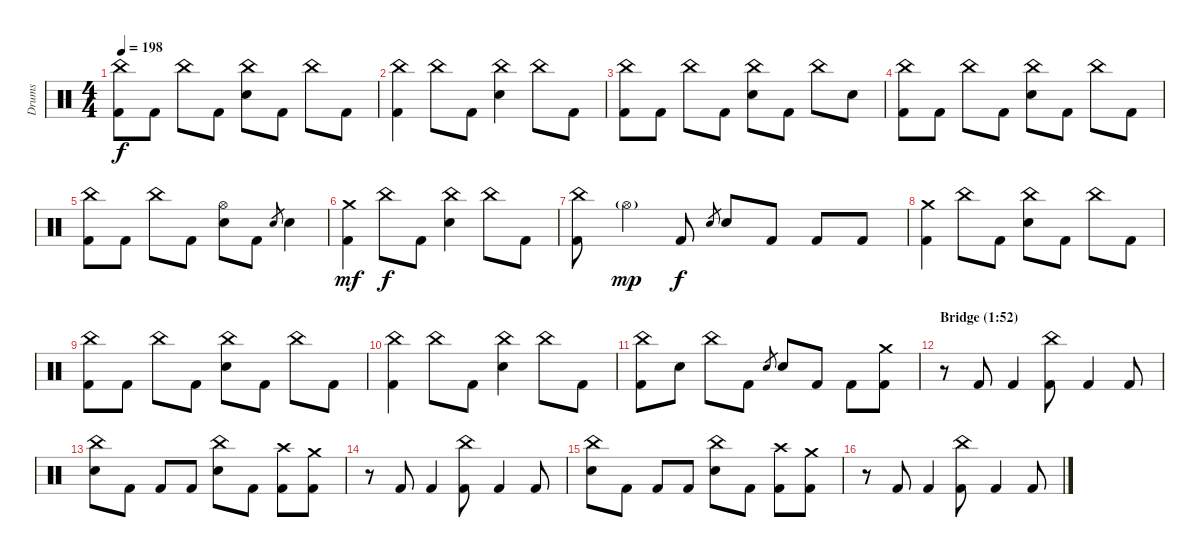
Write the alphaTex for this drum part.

\track ("Drums" "Drums") {instrument percussion}
\staff {score}
\articulation defaults
\ts (4 4)
\tempo 198
\clef neutral
\ks c
("China (hit)" "Kick (hit) 2").8{dy f} "Kick (hit) 2".8 "China (hit)".8 "Kick (hit) 2".8 ("China (hit)" "Snare (hit) 2").8 "Kick (hit) 2".8 "China (hit)".8 "Kick (hit) 2".8 |
("China (hit)" "Kick (hit) 2").4 "China (hit)".8 "Kick (hit) 2".8 ("China (hit)" "Snare (hit) 2").4 "China (hit)".8 "Kick (hit) 2".8 |
("China (hit)" "Kick (hit) 2").8 "Kick (hit) 2".8 "China (hit)".8 "Kick (hit) 2".8 ("China (hit)" "Snare (hit) 2").8 "Kick (hit) 2".8 "China (hit)".8 "Snare (hit) 2".8 |
("China (hit)" "Kick (hit) 2").8 "Kick (hit) 2".8 "China (hit)".8 "Kick (hit) 2".8 ("China (hit)" "Snare (hit) 2").8 "Kick (hit) 2".8 "China (hit)".8 "Kick (hit) 2".8 |
("China (hit)" "Kick (hit) 2").8 "Kick (hit) 2".8 "China (hit)".8 "Kick (hit) 2".8 ("Hi-Hat (open)" "Snare (hit) 2").8 "Kick (hit) 2".8 "Snare (hit) 2".8{gr} "Snare (hit) 2".4 |
("Crash medium (hit)" "Kick (hit) 2").4{dy mf} "China (hit)".8{dy f} "Kick (hit) 2".8 ("China (hit)" "Snare (hit) 2").4 "China (hit)".8 "Kick (hit) 2".8 |
("China (hit)" "Kick (hit) 2").8 "Hi-Hat (open)"{g}.4{dy mp} "Kick (hit) 2".8{dy f} "Snare (hit) 2".8{gr} "Snare (hit) 2".8 "Kick (hit) 2".8 "Kick (hit) 2".8 "Kick (hit) 2".8 |
("Crash medium (hit)" "Kick (hit) 2").4 "China (hit)".8 "Kick (hit) 2".8 ("China (hit)" "Snare (hit) 2").8 "Kick (hit) 2".8 "China (hit)".8 "Kick (hit) 2".8 |
("China (hit)" "Kick (hit) 2").8 "Kick (hit) 2".8 "China (hit)".8 "Kick (hit) 2".8 ("China (hit)" "Snare (hit) 2").8 "Kick (hit) 2".8 "China (hit)".8 "Kick (hit) 2".8 |
("China (hit)" "Kick (hit) 2").4 "China (hit)".8 "Kick (hit) 2".8 ("China (hit)" "Snare (hit) 2").4 "China (hit)".8 "Kick (hit) 2".8 |
("China (hit)" "Kick (hit) 2").8 "Snare (hit) 2".8 "China (hit)".8 "Kick (hit) 2".8 "Snare (hit) 2".8{gr} "Snare (hit) 2".8 "Kick (hit) 2".8 "Kick (hit) 2".8 ("Crash medium (hit)" "Kick (hit) 2").8 |
\section ("" "Bridge (1:52)")
r.8 "Kick (hit) 2".8 "Kick (hit) 2".4 ("China (hit)" "Kick (hit) 2").8 "Kick (hit) 2".4 "Kick (hit) 2".8 |
("China (hit)" "Snare (hit) 2").8 "Kick (hit) 2".8 "Kick (hit) 2".8 "Kick (hit) 2".8 ("China (hit)" "Snare (hit) 2").8 "Kick (hit) 2".8 ("Crash high (hit)" "Kick (hit) 2").8 ("Crash medium (hit)" "Kick (hit) 2").8 |
r.8 "Kick (hit) 2".8 "Kick (hit) 2".4 ("China (hit)" "Kick (hit) 2").8 "Kick (hit) 2".4 "Kick (hit) 2".8 |
("China (hit)" "Snare (hit) 2").8 "Kick (hit) 2".8 "Kick (hit) 2".8 "Kick (hit) 2".8 ("China (hit)" "Snare (hit) 2").8 "Kick (hit) 2".8 ("Crash high (hit)" "Kick (hit) 2").8 ("Crash medium (hit)" "Kick (hit) 2").8 |
r.8 "Kick (hit) 2".8 "Kick (hit) 2".4 ("China (hit)" "Kick (hit) 2").8 "Kick (hit) 2".4 "Kick (hit) 2".8
